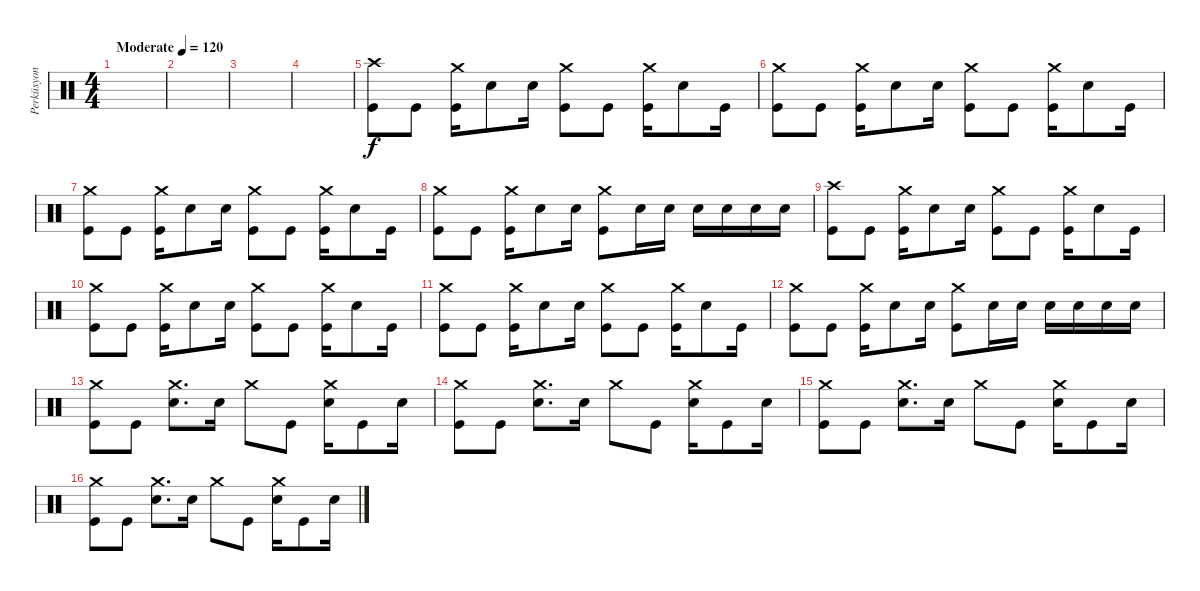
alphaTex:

\track ("Perküsyon" "Perküsyon") {instrument percussion}
\staff {score}
\articulation defaults
\ts (4 4)
\tempo (120 "Moderate")
\clef neutral
\ks c
|
|
|
|
("Kick (hit)" "Crash high (hit)").8 "Kick (hit)".8 ("Kick (hit)" "Crash medium (hit)").16 "Snare (hit) 2".8 "Snare (hit) 2".16 ("Kick (hit)" "Crash medium (hit)").8 "Kick (hit)".8 ("Kick (hit)" "Crash medium (hit)").16 "Snare (hit) 2".8 "Kick (hit)".16 |
("Kick (hit)" "Crash medium (hit)").8 "Kick (hit)".8 ("Kick (hit)" "Crash medium (hit)").16 "Snare (hit) 2".8 "Snare (hit) 2".16 ("Kick (hit)" "Crash medium (hit)").8 "Kick (hit)".8 ("Kick (hit)" "Crash medium (hit)").16 "Snare (hit) 2".8 "Kick (hit)".16 |
("Kick (hit)" "Crash medium (hit)").8 "Kick (hit)".8 ("Kick (hit)" "Crash medium (hit)").16 "Snare (hit) 2".8 "Snare (hit) 2".16 ("Kick (hit)" "Crash medium (hit)").8 "Kick (hit)".8 ("Kick (hit)" "Crash medium (hit)").16 "Snare (hit) 2".8 "Kick (hit)".16 |
("Kick (hit)" "Crash medium (hit)").8 "Kick (hit)".8 ("Kick (hit)" "Crash medium (hit)").16 "Snare (hit) 2".8 "Snare (hit) 2".16 ("Kick (hit)" "Crash medium (hit)").8 "Snare (hit) 2".16 "Snare (hit) 2".16 "Snare (hit) 2".16 "Snare (hit) 2".16 "Snare (hit) 2".16 "Snare (hit) 2".16 |
("Kick (hit)" "Crash high (hit)").8 "Kick (hit)".8 ("Kick (hit)" "Crash medium (hit)").16 "Snare (hit) 2".8 "Snare (hit) 2".16 ("Kick (hit)" "Crash medium (hit)").8 "Kick (hit)".8 ("Kick (hit)" "Crash medium (hit)").16 "Snare (hit) 2".8 "Kick (hit)".16 |
("Kick (hit)" "Crash medium (hit)").8 "Kick (hit)".8 ("Kick (hit)" "Crash medium (hit)").16 "Snare (hit) 2".8 "Snare (hit) 2".16 ("Kick (hit)" "Crash medium (hit)").8 "Kick (hit)".8 ("Kick (hit)" "Crash medium (hit)").16 "Snare (hit) 2".8 "Kick (hit)".16 |
("Kick (hit)" "Crash medium (hit)").8 "Kick (hit)".8 ("Kick (hit)" "Crash medium (hit)").16 "Snare (hit) 2".8 "Snare (hit) 2".16 ("Kick (hit)" "Crash medium (hit)").8 "Kick (hit)".8 ("Kick (hit)" "Crash medium (hit)").16 "Snare (hit) 2".8 "Kick (hit)".16 |
("Kick (hit)" "Crash medium (hit)").8 "Kick (hit)".8 ("Kick (hit)" "Crash medium (hit)").16 "Snare (hit) 2".8 "Snare (hit) 2".16 ("Kick (hit)" "Crash medium (hit)").8 "Snare (hit) 2".16 "Snare (hit) 2".16 "Snare (hit) 2".16 "Snare (hit) 2".16 "Snare (hit) 2".16 "Snare (hit) 2".16 |
("Kick (hit)" "Crash medium (hit)").8 "Kick (hit)".8 ("Snare (hit) 2" "Crash medium (hit)").8{d} "Snare (hit) 2".16 "Crash medium (hit)".8 "Kick (hit)".8 ("Snare (hit) 2" "Crash medium (hit)").16 "Kick (hit)".8 "Snare (hit) 2".16 |
("Kick (hit)" "Crash medium (hit)").8 "Kick (hit)".8 ("Snare (hit) 2" "Crash medium (hit)").8{d} "Snare (hit) 2".16 "Crash medium (hit)".8 "Kick (hit)".8 ("Snare (hit) 2" "Crash medium (hit)").16 "Kick (hit)".8 "Snare (hit) 2".16 |
("Kick (hit)" "Crash medium (hit)").8 "Kick (hit)".8 ("Snare (hit) 2" "Crash medium (hit)").8{d} "Snare (hit) 2".16 "Crash medium (hit)".8 "Kick (hit)".8 ("Snare (hit) 2" "Crash medium (hit)").16 "Kick (hit)".8 "Snare (hit) 2".16 |
("Kick (hit)" "Crash medium (hit)").8 "Kick (hit)".8 ("Snare (hit) 2" "Crash medium (hit)").8{d} "Snare (hit) 2".16 "Crash medium (hit)".8 "Kick (hit)".8 ("Snare (hit) 2" "Crash medium (hit)").16 "Kick (hit)".8 "Snare (hit) 2".16
